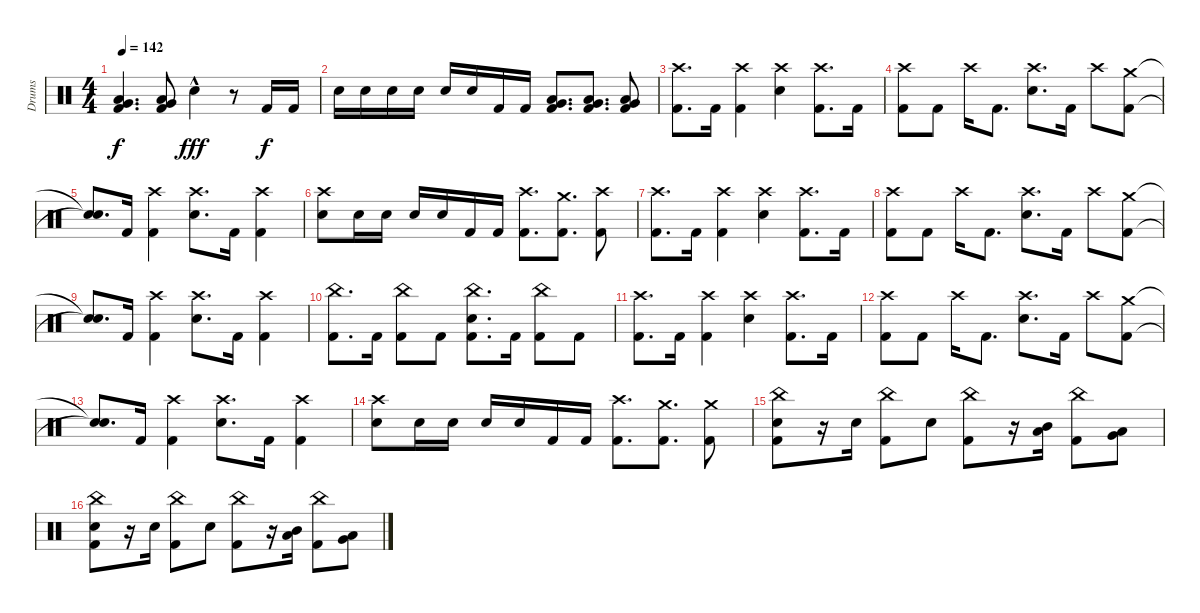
\track ("Drums" "Drums") {instrument percussion}
\staff {score}
\articulation defaults
\ts (4 4)
\tempo 142
\clef neutral
\ks c
("Very Low Tom (hit)" "Low Floor Tom (hit)" "Kick (hit) 2").4{d dy f} ("Very Low Tom (hit)" "Low Floor Tom (hit)" "Kick (hit) 2").8 "Electric Snare (hit)"{hac}.4{dy fff} r.8 "Kick (hit) 2".16{dy f} "Kick (hit) 2".16 |
"Electric Snare (hit)".16 "Electric Snare (hit)".16 "Electric Snare (hit)".16 "Electric Snare (hit)".16 "Electric Snare (hit)".16 "Electric Snare (hit)".16 "Kick (hit) 2".16 "Kick (hit) 2".16 ("Very Low Tom (hit)" "Low Floor Tom (hit)" "Kick (hit) 2").8{d} ("Very Low Tom (hit)" "Low Floor Tom (hit)" "Kick (hit) 2").8{d} ("Very Low Tom (hit)" "Low Floor Tom (hit)" "Kick (hit) 2").8 |
("Crash high (hit)" "Kick (hit) 2").8{d} "Kick (hit) 2".16 ("Crash high (hit)" "Kick (hit) 2").4 ("Crash high (hit)" "Electric Snare (hit)").4 ("Crash high (hit)" "Kick (hit) 2").8{d} "Kick (hit) 2".16 |
("Crash high (hit)" "Kick (hit) 2").8 "Kick (hit) 2".8 "Crash high (hit)".16 "Kick (hit) 2".8{d} ("Crash high (hit)" "Electric Snare (hit)").8{d} "Kick (hit) 2".16 "Crash high (hit)".8 ("Crash medium (hit)" "Kick (hit) 2").8 |
("Snare (hit)"{t} "Snare (hit)"{t}).8{d} "Kick (hit) 2".16 ("Crash high (hit)" "Kick (hit) 2").4 ("Crash high (hit)" "Electric Snare (hit)").8{d} "Kick (hit) 2".16 ("Crash high (hit)" "Kick (hit) 2").4 |
("Crash high (hit)" "Electric Snare (hit)").8 "Electric Snare (hit)".16 "Electric Snare (hit)".16 "Electric Snare (hit)".16 "Electric Snare (hit)".16 "Kick (hit) 2".16 "Kick (hit) 2".16 ("Crash high (hit)" "Kick (hit) 2").8{d} ("Crash medium (hit)" "Kick (hit) 2").8{d} ("Crash high (hit)" "Kick (hit) 2").8 |
("Crash high (hit)" "Kick (hit) 2").8{d} "Kick (hit) 2".16 ("Crash high (hit)" "Kick (hit) 2").4 ("Crash high (hit)" "Electric Snare (hit)").4 ("Crash high (hit)" "Kick (hit) 2").8{d} "Kick (hit) 2".16 |
("Crash high (hit)" "Kick (hit) 2").8 "Kick (hit) 2".8 "Crash high (hit)".16 "Kick (hit) 2".8{d} ("Crash high (hit)" "Electric Snare (hit)").8{d} "Kick (hit) 2".16 "Crash high (hit)".8 ("Crash medium (hit)" "Kick (hit) 2").8 |
("Snare (hit)"{t} "Snare (hit)"{t}).8{d} "Kick (hit) 2".16 ("Crash high (hit)" "Kick (hit) 2").4 ("Crash high (hit)" "Electric Snare (hit)").8{d} "Kick (hit) 2".16 ("Crash high (hit)" "Kick (hit) 2").4 |
("China (hit)" "Kick (hit) 2").8{d} "Kick (hit) 2".16 ("China (hit)" "Kick (hit) 2").8 "Kick (hit) 2".8 ("China (hit)" "Electric Snare (hit)" "Kick (hit) 2").8{d} "Kick (hit) 2".16 ("China (hit)" "Kick (hit) 2").8 "Kick (hit) 2".8 |
("Crash high (hit)" "Kick (hit) 2").8{d} "Kick (hit) 2".16 ("Crash high (hit)" "Kick (hit) 2").4 ("Crash high (hit)" "Electric Snare (hit)").4 ("Crash high (hit)" "Kick (hit) 2").8{d} "Kick (hit) 2".16 |
("Crash high (hit)" "Kick (hit) 2").8 "Kick (hit) 2".8 "Crash high (hit)".16 "Kick (hit) 2".8{d} ("Crash high (hit)" "Electric Snare (hit)").8{d} "Kick (hit) 2".16 "Crash high (hit)".8 ("Crash medium (hit)" "Kick (hit) 2").8 |
("Snare (hit)"{t} "Snare (hit)"{t}).8{d} "Kick (hit) 2".16 ("Crash high (hit)" "Kick (hit) 2").4 ("Crash high (hit)" "Electric Snare (hit)").8{d} "Kick (hit) 2".16 ("Crash high (hit)" "Kick (hit) 2").4 |
("Crash high (hit)" "Electric Snare (hit)").8 "Electric Snare (hit)".16 "Electric Snare (hit)".16 "Electric Snare (hit)".16 "Electric Snare (hit)".16 "Kick (hit) 2".16 "Kick (hit) 2".16 ("Crash high (hit)" "Kick (hit) 2").8{d} ("Crash medium (hit)" "Kick (hit) 2").8{d} ("Crash medium (hit)" "Kick (hit) 2").8 |
("China (hit)" "Electric Snare (hit)" "Kick (hit) 2").8 r.16 "Electric Snare (hit)".16 ("China (hit)" "Kick (hit) 2").8 "Electric Snare (hit)".8 ("China (hit)" "Kick (hit) 2").8 r.16 ("Mid Tom (hit)" "Low Tom (hit)").16 ("China (hit)" "Kick (hit) 2").8 ("Very Low Tom (hit)" "Low Floor Tom (hit)").8 |
("China (hit)" "Electric Snare (hit)" "Kick (hit) 2").8 r.16 "Electric Snare (hit)".16 ("China (hit)" "Kick (hit) 2").8 "Electric Snare (hit)".8 ("China (hit)" "Kick (hit) 2").8 r.16 ("Mid Tom (hit)" "Low Tom (hit)").16 ("China (hit)" "Kick (hit) 2").8 ("Very Low Tom (hit)" "Low Floor Tom (hit)").8
